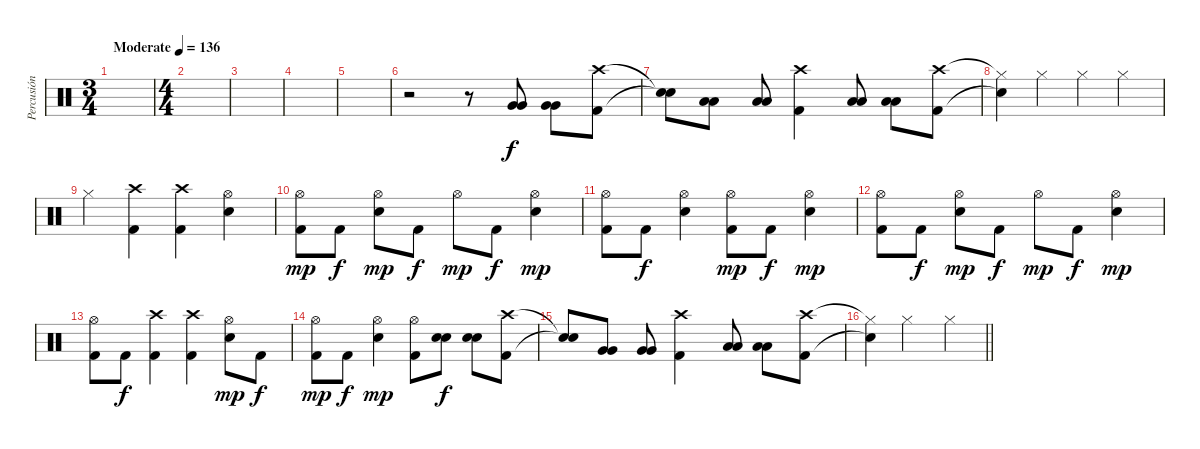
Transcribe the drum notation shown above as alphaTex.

\track ("Percusión" "Percusión") {instrument percussion}
\staff {score}
\articulation defaults
\ts (3 4)
\tempo (136 "Moderate")
\clef neutral
\ks c
|
\ts (4 4)
|
|
|
|
r.2 r.8 ("Very Low Tom (hit)" "Very Low Tom (hit)").8 ("Very Low Tom (hit)" "Very Low Tom (hit)").8 ("Crash high (hit)" "Kick (hit) 2").8 |
("Snare (hit)"{t} "Snare (hit)"{t}).8 ("Low Tom (hit)" "Low Tom (hit)").8 ("Low Tom (hit)" "Low Tom (hit)").8 ("Crash high (hit)" "Kick (hit) 2").4 ("Low Floor Tom (hit)" "Low Floor Tom (hit)").8 ("Low Floor Tom (hit)" "Low Floor Tom (hit)").8 ("Crash high (hit)" "Kick (hit) 2").8 |
("Hi-Hat (closed)"{t} "Snare (hit)"{t}).4 "Hi-Hat (closed)".4 "Hi-Hat (closed)".4 "Hi-Hat (closed)".4 |
"Hi-Hat (closed)".4 ("Crash high (hit)" "Kick (hit) 2").4 ("Crash high (hit)" "Kick (hit) 2").4 ("Hi-Hat (open)" "Snare (hit) 2").4 |
("Hi-Hat (open)" "Kick (hit) 2").8{dy mp} "Kick (hit) 2".8{dy f} ("Hi-Hat (open)" "Snare (hit) 2").8{dy mp} "Kick (hit) 2".8{dy f} "Hi-Hat (open)".8{dy mp} "Kick (hit) 2".8{dy f} ("Hi-Hat (open)" "Snare (hit) 2").4{dy mp} |
("Hi-Hat (open)" "Kick (hit) 2").8 "Kick (hit) 2".8{dy f} ("Hi-Hat (open)" "Snare (hit) 2").4 ("Hi-Hat (open)" "Kick (hit) 2").8{dy mp} "Kick (hit) 2".8{dy f} ("Hi-Hat (open)" "Snare (hit) 2").4{dy mp} |
("Hi-Hat (open)" "Kick (hit) 2").8 "Kick (hit) 2".8{dy f} ("Hi-Hat (open)" "Snare (hit) 2").8{dy mp} "Kick (hit) 2".8{dy f} "Hi-Hat (open)".8{dy mp} "Kick (hit) 2".8{dy f} ("Hi-Hat (open)" "Snare (hit) 2").4{dy mp} |
("Hi-Hat (open)" "Kick (hit) 2").8 "Kick (hit) 2".8{dy f} ("Crash high (hit)" "Kick (hit) 2").4 ("Crash high (hit)" "Kick (hit) 2").4 ("Hi-Hat (open)" "Snare (hit) 2").8{dy mp} "Kick (hit) 2".8{dy f} |
("Hi-Hat (open)" "Kick (hit) 2").8{dy mp} "Kick (hit) 2".8{dy f} ("Hi-Hat (open)" "Snare (hit) 2").4{dy mp} ("Hi-Hat (open)" "Kick (hit) 2").8 ("Snare (hit) 2" "Snare (hit) 2").8{dy f} ("Snare (hit) 2" "Snare (hit) 2").8 ("Crash high (hit)" "Kick (hit) 2").8 |
("Snare (hit)"{t} "Snare (hit)"{t}).8 ("Very Low Tom (hit)" "Very Low Tom (hit)").8 ("Very Low Tom (hit)" "Very Low Tom (hit)").8 ("Crash high (hit)" "Kick (hit) 2").4 ("Low Tom (hit)" "Low Tom (hit)").8 ("Low Tom (hit)" "Low Tom (hit)").8 ("Crash high (hit)" "Kick (hit) 2").8 |
\barLineRight lightlight
("Hi-Hat (closed)"{t} "Snare (hit)"{t}).4 "Hi-Hat (closed)".2 "Hi-Hat (closed)".4
